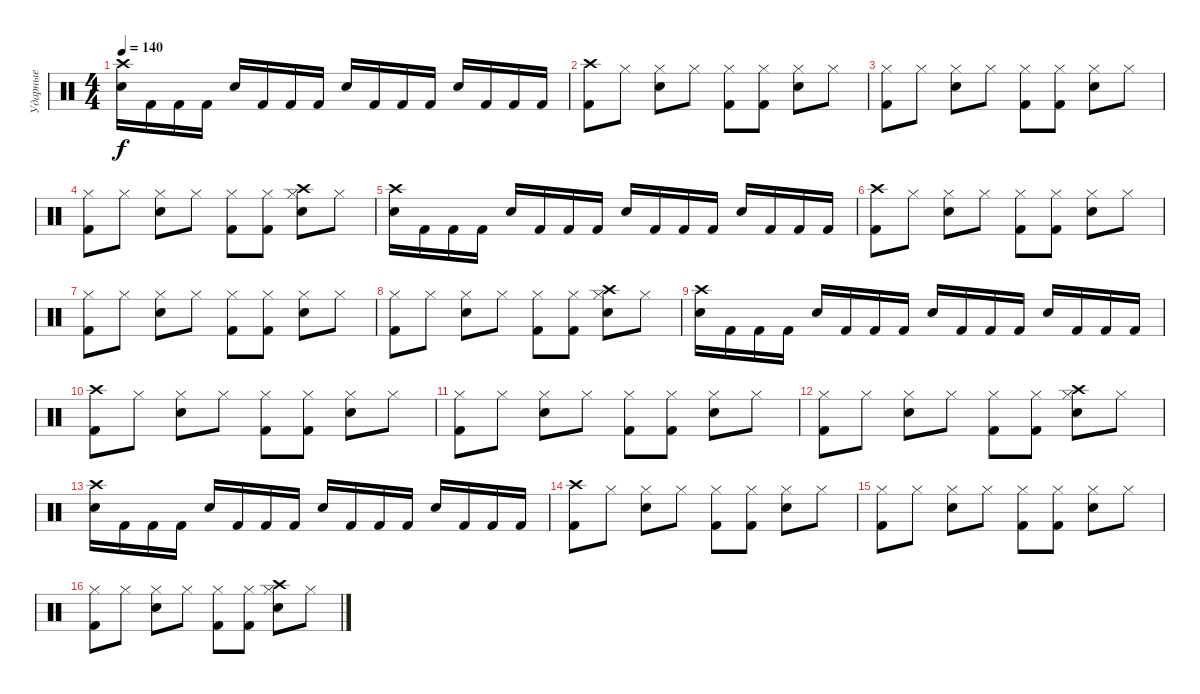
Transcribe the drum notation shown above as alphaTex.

\track ("Ударные" "Ударные") {instrument percussion}
\staff {score}
\articulation defaults
\ts (4 4)
\tempo 140
\clef neutral
\ks c
("Crash high (hit)" "Snare (hit) 2").16{dy f} "Kick (hit) 2".16 "Kick (hit) 2".16 "Kick (hit) 2".16 "Snare (hit) 2".16 "Kick (hit) 2".16 "Kick (hit) 2".16 "Kick (hit) 2".16 "Snare (hit) 2".16 "Kick (hit) 2".16 "Kick (hit) 2".16 "Kick (hit) 2".16 "Snare (hit) 2".16 "Kick (hit) 2".16 "Kick (hit) 2".16 "Kick (hit) 2".16 |
("Crash high (hit)" "Kick (hit) 2").8 "Hi-Hat (closed)".8 ("Hi-Hat (closed)" "Snare (hit) 2").8 "Hi-Hat (closed)".8 ("Kick (hit) 2" "Hi-Hat (closed)").8 ("Kick (hit) 2" "Hi-Hat (closed)").8 ("Snare (hit) 2" "Hi-Hat (closed)").8 "Hi-Hat (closed)".8 |
("Hi-Hat (closed)" "Kick (hit) 2").8 "Hi-Hat (closed)".8 ("Hi-Hat (closed)" "Snare (hit) 2").8 "Hi-Hat (closed)".8 ("Kick (hit) 2" "Hi-Hat (closed)").8 ("Kick (hit) 2" "Hi-Hat (closed)").8 ("Snare (hit) 2" "Hi-Hat (closed)").8 "Hi-Hat (closed)".8 |
("Hi-Hat (closed)" "Kick (hit) 2").8 "Hi-Hat (closed)".8 ("Hi-Hat (closed)" "Snare (hit) 2").8 "Hi-Hat (closed)".8 ("Kick (hit) 2" "Hi-Hat (closed)").8 ("Kick (hit) 2" "Hi-Hat (closed)").8 ("Crash high (hit)" "Snare (hit) 2" "Hi-Hat (closed)").8 "Hi-Hat (closed)".8 |
("Crash high (hit)" "Snare (hit) 2").16 "Kick (hit) 2".16 "Kick (hit) 2".16 "Kick (hit) 2".16 "Snare (hit) 2".16 "Kick (hit) 2".16 "Kick (hit) 2".16 "Kick (hit) 2".16 "Snare (hit) 2".16 "Kick (hit) 2".16 "Kick (hit) 2".16 "Kick (hit) 2".16 "Snare (hit) 2".16 "Kick (hit) 2".16 "Kick (hit) 2".16 "Kick (hit) 2".16 |
("Crash high (hit)" "Kick (hit) 2").8 "Hi-Hat (closed)".8 ("Hi-Hat (closed)" "Snare (hit) 2").8 "Hi-Hat (closed)".8 ("Kick (hit) 2" "Hi-Hat (closed)").8 ("Kick (hit) 2" "Hi-Hat (closed)").8 ("Snare (hit) 2" "Hi-Hat (closed)").8 "Hi-Hat (closed)".8 |
("Hi-Hat (closed)" "Kick (hit) 2").8 "Hi-Hat (closed)".8 ("Hi-Hat (closed)" "Snare (hit) 2").8 "Hi-Hat (closed)".8 ("Kick (hit) 2" "Hi-Hat (closed)").8 ("Kick (hit) 2" "Hi-Hat (closed)").8 ("Snare (hit) 2" "Hi-Hat (closed)").8 "Hi-Hat (closed)".8 |
("Hi-Hat (closed)" "Kick (hit) 2").8 "Hi-Hat (closed)".8 ("Hi-Hat (closed)" "Snare (hit) 2").8 "Hi-Hat (closed)".8 ("Kick (hit) 2" "Hi-Hat (closed)").8 ("Kick (hit) 2" "Hi-Hat (closed)").8 ("Crash high (hit)" "Snare (hit) 2" "Hi-Hat (closed)").8 "Hi-Hat (closed)".8 |
("Crash high (hit)" "Snare (hit) 2").16 "Kick (hit) 2".16 "Kick (hit) 2".16 "Kick (hit) 2".16 "Snare (hit) 2".16 "Kick (hit) 2".16 "Kick (hit) 2".16 "Kick (hit) 2".16 "Snare (hit) 2".16 "Kick (hit) 2".16 "Kick (hit) 2".16 "Kick (hit) 2".16 "Snare (hit) 2".16 "Kick (hit) 2".16 "Kick (hit) 2".16 "Kick (hit) 2".16 |
("Crash high (hit)" "Kick (hit) 2").8 "Hi-Hat (closed)".8 ("Hi-Hat (closed)" "Snare (hit) 2").8 "Hi-Hat (closed)".8 ("Kick (hit) 2" "Hi-Hat (closed)").8 ("Kick (hit) 2" "Hi-Hat (closed)").8 ("Snare (hit) 2" "Hi-Hat (closed)").8 "Hi-Hat (closed)".8 |
("Hi-Hat (closed)" "Kick (hit) 2").8 "Hi-Hat (closed)".8 ("Hi-Hat (closed)" "Snare (hit) 2").8 "Hi-Hat (closed)".8 ("Kick (hit) 2" "Hi-Hat (closed)").8 ("Kick (hit) 2" "Hi-Hat (closed)").8 ("Snare (hit) 2" "Hi-Hat (closed)").8 "Hi-Hat (closed)".8 |
("Hi-Hat (closed)" "Kick (hit) 2").8 "Hi-Hat (closed)".8 ("Hi-Hat (closed)" "Snare (hit) 2").8 "Hi-Hat (closed)".8 ("Kick (hit) 2" "Hi-Hat (closed)").8 ("Kick (hit) 2" "Hi-Hat (closed)").8 ("Crash high (hit)" "Snare (hit) 2" "Hi-Hat (closed)").8 "Hi-Hat (closed)".8 |
("Crash high (hit)" "Snare (hit) 2").16 "Kick (hit) 2".16 "Kick (hit) 2".16 "Kick (hit) 2".16 "Snare (hit) 2".16 "Kick (hit) 2".16 "Kick (hit) 2".16 "Kick (hit) 2".16 "Snare (hit) 2".16 "Kick (hit) 2".16 "Kick (hit) 2".16 "Kick (hit) 2".16 "Snare (hit) 2".16 "Kick (hit) 2".16 "Kick (hit) 2".16 "Kick (hit) 2".16 |
("Crash high (hit)" "Kick (hit) 2").8 "Hi-Hat (closed)".8 ("Hi-Hat (closed)" "Snare (hit) 2").8 "Hi-Hat (closed)".8 ("Kick (hit) 2" "Hi-Hat (closed)").8 ("Kick (hit) 2" "Hi-Hat (closed)").8 ("Snare (hit) 2" "Hi-Hat (closed)").8 "Hi-Hat (closed)".8 |
("Hi-Hat (closed)" "Kick (hit) 2").8 "Hi-Hat (closed)".8 ("Hi-Hat (closed)" "Snare (hit) 2").8 "Hi-Hat (closed)".8 ("Kick (hit) 2" "Hi-Hat (closed)").8 ("Kick (hit) 2" "Hi-Hat (closed)").8 ("Snare (hit) 2" "Hi-Hat (closed)").8 "Hi-Hat (closed)".8 |
("Hi-Hat (closed)" "Kick (hit) 2").8 "Hi-Hat (closed)".8 ("Hi-Hat (closed)" "Snare (hit) 2").8 "Hi-Hat (closed)".8 ("Kick (hit) 2" "Hi-Hat (closed)").8 ("Kick (hit) 2" "Hi-Hat (closed)").8 ("Crash high (hit)" "Snare (hit) 2" "Hi-Hat (closed)").8 "Hi-Hat (closed)".8
